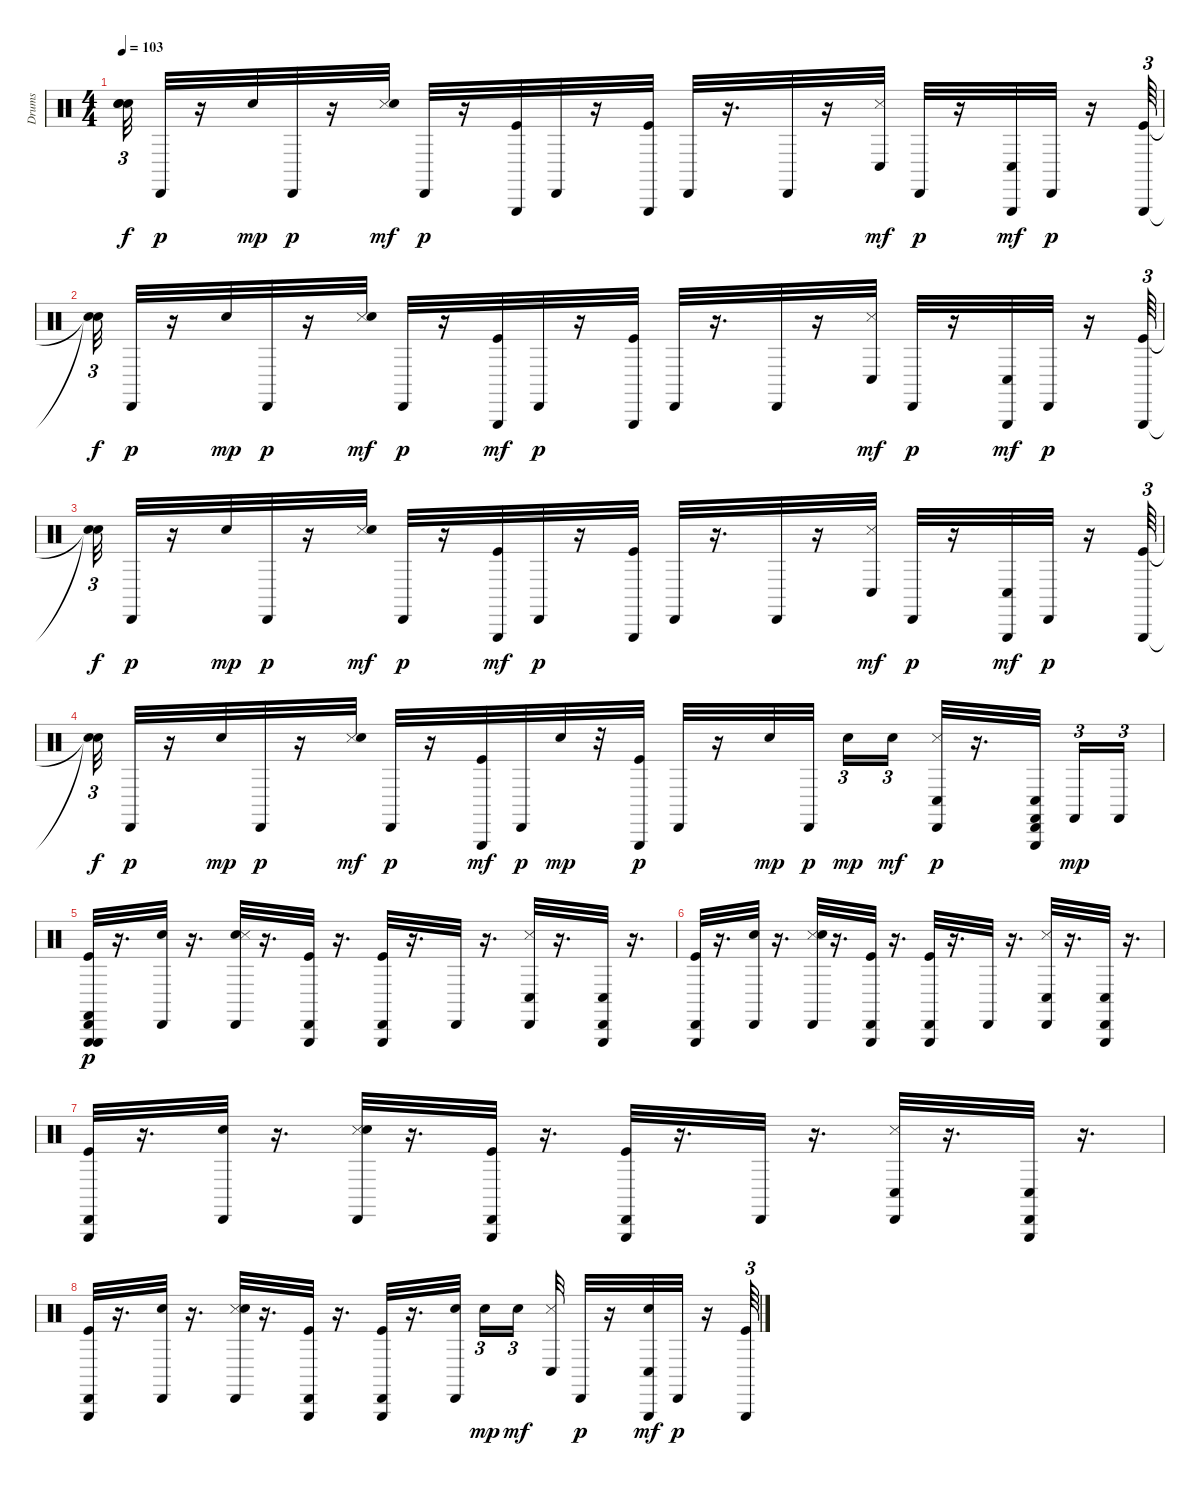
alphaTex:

\track ("Drums" "Drums") {instrument percussion}
\staff {score}
\articulation defaults
\ts (4 4)
\tempo 103
\clef neutral
\ks c
("Snare (hit)"{t} "Snare (hit)"{t} "Snare (hit)"{t}).32{tu (3 2) dy f} "Cabasa (hit)".32{dy p} r.16 "Snare (hit) 2".32{dy mp} "Cabasa (hit)".32{dy p} r.16 ("Snare (side stick) 3" "Snare (hit) 2").32{dy mf} "Cabasa (hit)".32{dy p} r.16 ("Kick (hit)" "Triangle (hit)").32 "Cabasa (hit)".32 r.16 ("Triangle (hit)" "Kick (hit)").32 "Cabasa (hit)".32 r.16{d} "Cabasa (hit)".32 r.16 ("Snare (side stick) 3" "Conga low (hit)").32{dy mf} "Cabasa (hit)".32{dy p} r.16 ("Triangle (hit)" "Conga low (hit)").32{dy mf} "Cabasa (hit)".32{dy p} r.16 ("Kick (hit)" "Triangle (hit)").64{tu (3 2)} |
("Snare (hit)"{t} "Snare (hit)"{t}).32{tu (3 2) dy f} "Cabasa (hit)".32{dy p} r.16 "Snare (hit) 2".32{dy mp} "Cabasa (hit)".32{dy p} r.16 ("Snare (side stick) 3" "Snare (hit) 2").32{dy mf} "Cabasa (hit)".32{dy p} r.16 ("Triangle (hit)" "Kick (hit)").32{dy mf} "Cabasa (hit)".32{dy p} r.16 ("Kick (hit)" "Triangle (hit)").32 "Cabasa (hit)".32 r.16{d} "Cabasa (hit)".32 r.16 ("Snare (side stick) 3" "Conga low (hit)").32{dy mf} "Cabasa (hit)".32{dy p} r.16 ("Triangle (hit)" "Conga low (hit)").32{dy mf} "Cabasa (hit)".32{dy p} r.16 ("Triangle (hit)" "Kick (hit)").64{tu (3 2)} |
("Snare (hit)"{t} "Snare (hit)"{t}).32{tu (3 2) dy f} "Cabasa (hit)".32{dy p} r.16 "Snare (hit) 2".32{dy mp} "Cabasa (hit)".32{dy p} r.16 ("Snare (side stick) 3" "Snare (hit) 2").32{dy mf} "Cabasa (hit)".32{dy p} r.16 ("Triangle (hit)" "Kick (hit)").32{dy mf} "Cabasa (hit)".32{dy p} r.16 ("Kick (hit)" "Triangle (hit)").32 "Cabasa (hit)".32 r.16{d} "Cabasa (hit)".32 r.16 ("Conga low (hit)" "Snare (side stick) 3").32{dy mf} "Cabasa (hit)".32{dy p} r.16 ("Triangle (hit)" "Conga low (hit)").32{dy mf} "Cabasa (hit)".32{dy p} r.16 ("Triangle (hit)" "Kick (hit)").64{tu (3 2)} |
("Snare (hit)"{t} "Snare (hit)"{t}).32{tu (3 2) dy f} "Cabasa (hit)".32{dy p} r.16 "Snare (hit) 2".32{dy mp} "Cabasa (hit)".32{dy p} r.16 ("Snare (side stick) 3" "Snare (hit) 2").32{dy mf} "Cabasa (hit)".32{dy p} r.16 ("Triangle (hit)" "Kick (hit)").32{dy mf} "Cabasa (hit)".32{dy p} "Snare (hit) 2".32{dy mp} r.32 ("Triangle (hit)" "Kick (hit)").32{dy p} "Cabasa (hit)".32 r.16 "Snare (hit) 2".32{dy mp} "Cabasa (hit)".32{dy p} "Snare (hit) 2".16{tu (3 2) dy mp} "Snare (hit) 2".16{tu (3 2) dy mf} ("Snare (side stick) 3" "Conga low (hit)" "Cabasa (hit)").32{dy p} r.16{d} ("Castanets (hit)" "Conga low (hit)" "Triangle (hit)" "Cabasa (hit)").32 "Castanets (hit)".16{tu (3 2) dy mp} "Castanets (hit)".16{tu (3 2)} |
("Triangle (hit)" "Kick (hit)" "Castanets (hit)" "Triangle (hit)" "Cabasa (hit)").32{dy p} r.16{d} ("Snare (hit) 2" "Cabasa (hit)").32 r.16{d} ("Snare (hit) 2" "Snare (side stick) 3" "Cabasa (hit)").32 r.16{d} ("Triangle (hit)" "Kick (hit)" "Cabasa (hit)").32 r.16{d} ("Kick (hit)" "Triangle (hit)" "Cabasa (hit)").32 r.16{d} "Cabasa (hit)".32 r.16{d} ("Conga low (hit)" "Snare (side stick) 3" "Cabasa (hit)").32 r.16{d} ("Conga low (hit)" "Triangle (hit)" "Cabasa (hit)").32 r.16{d} |
("Triangle (hit)" "Kick (hit)" "Cabasa (hit)").32 r.16{d} ("Snare (hit) 2" "Cabasa (hit)").32 r.16{d} ("Snare (side stick) 3" "Snare (hit) 2" "Cabasa (hit)").32 r.16{d} ("Kick (hit)" "Triangle (hit)" "Cabasa (hit)").32 r.16{d} ("Kick (hit)" "Triangle (hit)" "Cabasa (hit)").32 r.16{d} "Cabasa (hit)".32 r.16{d} ("Snare (side stick) 3" "Conga low (hit)" "Cabasa (hit)").32 r.16{d} ("Conga low (hit)" "Triangle (hit)" "Cabasa (hit)").32 r.16{d} |
("Kick (hit)" "Triangle (hit)" "Cabasa (hit)").32 r.16{d} ("Snare (hit) 2" "Cabasa (hit)").32 r.16{d} ("Snare (side stick) 3" "Snare (hit) 2" "Cabasa (hit)").32 r.16{d} ("Kick (hit)" "Triangle (hit)" "Cabasa (hit)").32 r.16{d} ("Triangle (hit)" "Kick (hit)" "Cabasa (hit)").32 r.16{d} "Cabasa (hit)".32 r.16{d} ("Snare (side stick) 3" "Conga low (hit)" "Cabasa (hit)").32 r.16{d} ("Triangle (hit)" "Conga low (hit)" "Cabasa (hit)").32 r.16{d} |
("Kick (hit)" "Triangle (hit)" "Cabasa (hit)").32 r.16{d} ("Snare (hit) 2" "Cabasa (hit)").32 r.16{d} ("Snare (side stick) 3" "Snare (hit) 2" "Cabasa (hit)").32 r.16{d} ("Triangle (hit)" "Kick (hit)" "Cabasa (hit)").32 r.16{d} ("Triangle (hit)" "Kick (hit)" "Cabasa (hit)").32 r.16{d} ("Snare (hit) 2" "Cabasa (hit)").32 "Snare (hit) 2".16{tu (3 2) dy mp} "Snare (hit) 2".16{tu (3 2) dy mf} ("Snare (side stick) 3" "Conga low (hit)").32 "Cabasa (hit)".32{dy p} r.16 ("Snare (hit) 2" "Triangle (hit)" "Conga low (hit)").32{dy mf} "Cabasa (hit)".32{dy p} r.16 ("Kick (hit)" "Triangle (hit)").64{tu (3 2)}
